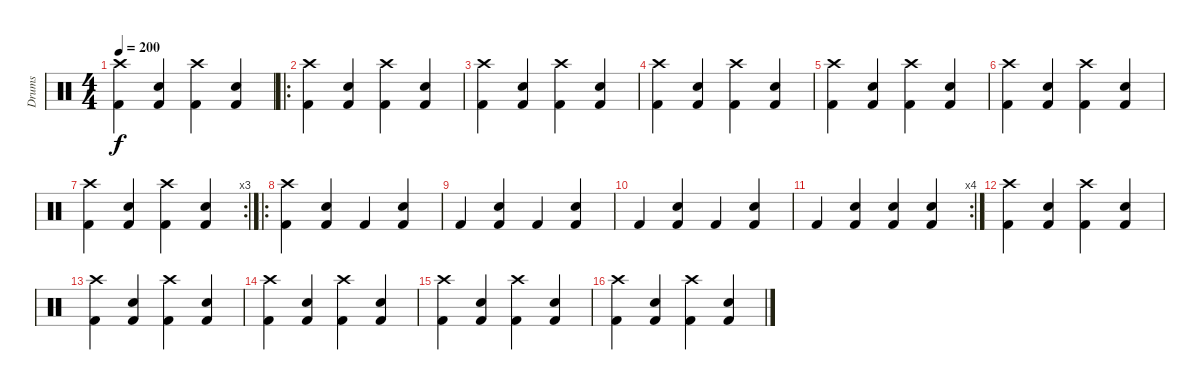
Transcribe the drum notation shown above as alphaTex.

\track ("Drums" "Drums") {instrument percussion}
\staff {score}
\articulation defaults
\ts (4 4)
\tempo 200
\clef neutral
\ks c
("Crash high (hit)" "Kick (hit) 2").4{dy f} ("Electric Snare (hit)" "Kick (hit) 2").4 ("Crash high (hit)" "Kick (hit) 2").4 ("Electric Snare (hit)" "Kick (hit) 2").4 |
\ro
("Crash high (hit)" "Kick (hit) 2").4 ("Electric Snare (hit)" "Kick (hit) 2").4 ("Crash high (hit)" "Kick (hit) 2").4 ("Electric Snare (hit)" "Kick (hit) 2").4 |
("Crash high (hit)" "Kick (hit) 2").4 ("Electric Snare (hit)" "Kick (hit) 2").4 ("Crash high (hit)" "Kick (hit) 2").4 ("Electric Snare (hit)" "Kick (hit) 2").4 |
("Crash high (hit)" "Kick (hit) 2").4 ("Electric Snare (hit)" "Kick (hit) 2").4 ("Crash high (hit)" "Kick (hit) 2").4 ("Electric Snare (hit)" "Kick (hit) 2").4 |
("Crash high (hit)" "Kick (hit) 2").4 ("Electric Snare (hit)" "Kick (hit) 2").4 ("Crash high (hit)" "Kick (hit) 2").4 ("Electric Snare (hit)" "Kick (hit) 2").4 |
("Crash high (hit)" "Kick (hit) 2").4 ("Electric Snare (hit)" "Kick (hit) 2").4 ("Crash high (hit)" "Kick (hit) 2").4 ("Electric Snare (hit)" "Kick (hit) 2").4 |
\rc 3
("Crash high (hit)" "Kick (hit) 2").4 ("Electric Snare (hit)" "Kick (hit) 2").4 ("Crash high (hit)" "Kick (hit) 2").4 ("Electric Snare (hit)" "Kick (hit) 2").4 |
\ro
("Crash high (hit)" "Kick (hit) 2").4 ("Electric Snare (hit)" "Kick (hit) 2").4 "Kick (hit) 2".4 ("Electric Snare (hit)" "Kick (hit) 2").4 |
"Kick (hit) 2".4 ("Electric Snare (hit)" "Kick (hit) 2").4 "Kick (hit) 2".4 ("Electric Snare (hit)" "Kick (hit) 2").4 |
"Kick (hit) 2".4 ("Electric Snare (hit)" "Kick (hit) 2").4 "Kick (hit) 2".4 ("Electric Snare (hit)" "Kick (hit) 2").4 |
\rc 4 "Kick (hit) 2".4
("Electric Snare (hit)" "Kick (hit) 2").4 ("Electric Snare (hit)" "Kick (hit) 2").4 ("Electric Snare (hit)" "Kick (hit) 2").4 |
("Crash high (hit)" "Kick (hit) 2").4 ("Electric Snare (hit)" "Kick (hit) 2").4 ("Crash high (hit)" "Kick (hit) 2").4 ("Electric Snare (hit)" "Kick (hit) 2").4 |
("Crash high (hit)" "Kick (hit) 2").4 ("Electric Snare (hit)" "Kick (hit) 2").4 ("Crash high (hit)" "Kick (hit) 2").4 ("Electric Snare (hit)" "Kick (hit) 2").4 |
("Crash high (hit)" "Kick (hit) 2").4 ("Electric Snare (hit)" "Kick (hit) 2").4 ("Crash high (hit)" "Kick (hit) 2").4 ("Electric Snare (hit)" "Kick (hit) 2").4 |
("Crash high (hit)" "Kick (hit) 2").4 ("Electric Snare (hit)" "Kick (hit) 2").4 ("Crash high (hit)" "Kick (hit) 2").4 ("Electric Snare (hit)" "Kick (hit) 2").4 |
("Crash high (hit)" "Kick (hit) 2").4 ("Electric Snare (hit)" "Kick (hit) 2").4 ("Crash high (hit)" "Kick (hit) 2").4 ("Electric Snare (hit)" "Kick (hit) 2").4
